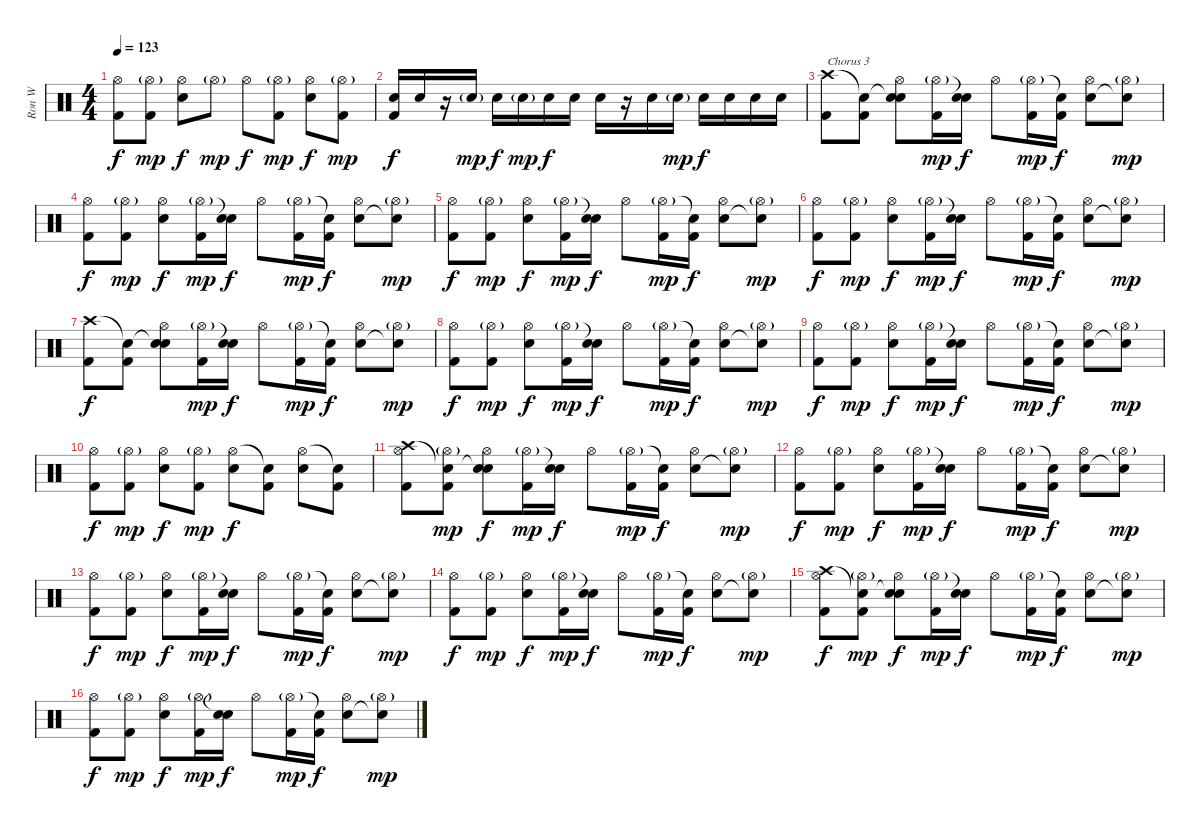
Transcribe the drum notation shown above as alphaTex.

\track ("Ron W" "Ron W") {instrument percussion}
\staff {score}
\articulation defaults
\ts (4 4)
\tempo 123
\clef neutral
\ks c
("Hi-Hat (open)" "Kick (hit) 2").8{dy f} ("Hi-Hat (open)"{g} "Kick (hit) 2").8{dy mp} ("Hi-Hat (open)" "Electric Snare (hit)").8{dy f} "Hi-Hat (open)"{g}.8{dy mp} "Hi-Hat (open)".8{dy f} ("Hi-Hat (open)"{g} "Kick (hit) 2").8{dy mp} ("Hi-Hat (open)" "Electric Snare (hit)").8{dy f} ("Hi-Hat (open)"{g} "Kick (hit) 2").8{dy mp} |
("Electric Snare (hit)" "Kick (hit) 2").16{dy f} "Electric Snare (hit)".16 r.16 "Electric Snare (hit)"{g}.16{dy mp} "Electric Snare (hit)".16{dy f} "Electric Snare (hit)"{g}.16{dy mp} "Electric Snare (hit)".16{dy f} "Electric Snare (hit)".16 "Electric Snare (hit)".16 r.16 "Electric Snare (hit)".16 "Electric Snare (hit)"{g}.16{dy mp} "Electric Snare (hit)".16{dy f} "Electric Snare (hit)".16 "Electric Snare (hit)".16 "Electric Snare (hit)".16 |
("Crash high (hit)" "Kick (hit) 2").8{txt "Chorus 3" balance 8} ("Snare (hit)"{t} "Kick (hit) 2").8 ("Snare (hit)"{t} "Hi-Hat (open)" "Electric Snare (hit)").8 ("Hi-Hat (open)"{g} "Kick (hit) 2").16{dy mp} ("Snare (hit)"{t} "Electric Snare (hit)").16{dy f} "Hi-Hat (open)".8 ("Hi-Hat (open)"{g} "Kick (hit) 2").16{dy mp} ("Snare (hit)"{t} "Kick (hit) 2").16{dy f} ("Hi-Hat (open)" "Electric Snare (hit)").8 ("Hi-Hat (open)"{g} "Snare (hit)"{t}).8{dy mp} |
("Hi-Hat (open)" "Kick (hit) 2").8{dy f} ("Hi-Hat (open)"{g} "Kick (hit) 2").8{dy mp} ("Hi-Hat (open)" "Electric Snare (hit)").8{dy f} ("Hi-Hat (open)"{g} "Kick (hit) 2").16{dy mp} ("Snare (hit)"{t} "Electric Snare (hit)").16{dy f} "Hi-Hat (open)".8 ("Hi-Hat (open)"{g} "Kick (hit) 2").16{dy mp} ("Snare (hit)"{t} "Kick (hit) 2").16{dy f} ("Hi-Hat (open)" "Electric Snare (hit)").8 ("Hi-Hat (open)"{g} "Snare (hit)"{t}).8{dy mp} |
("Hi-Hat (open)" "Kick (hit) 2").8{dy f} ("Hi-Hat (open)"{g} "Kick (hit) 2").8{dy mp} ("Hi-Hat (open)" "Electric Snare (hit)").8{dy f} ("Hi-Hat (open)"{g} "Kick (hit) 2").16{dy mp} ("Snare (hit)"{t} "Electric Snare (hit)").16{dy f} "Hi-Hat (open)".8 ("Hi-Hat (open)"{g} "Kick (hit) 2").16{dy mp} ("Snare (hit)"{t} "Kick (hit) 2").16{dy f} ("Hi-Hat (open)" "Electric Snare (hit)").8 ("Hi-Hat (open)"{g} "Snare (hit)"{t}).8{dy mp} |
("Hi-Hat (open)" "Kick (hit) 2").8{dy f} ("Hi-Hat (open)"{g} "Kick (hit) 2").8{dy mp} ("Hi-Hat (open)" "Electric Snare (hit)").8{dy f} ("Hi-Hat (open)"{g} "Kick (hit) 2").16{dy mp} ("Snare (hit)"{t} "Electric Snare (hit)").16{dy f} "Hi-Hat (open)".8 ("Hi-Hat (open)"{g} "Kick (hit) 2").16{dy mp} ("Snare (hit)"{t} "Kick (hit) 2").16{dy f} ("Hi-Hat (open)" "Electric Snare (hit)").8 ("Hi-Hat (open)"{g} "Snare (hit)"{t}).8{dy mp} |
("Crash high (hit)" "Kick (hit) 2").8{dy f} ("Snare (hit)"{t} "Kick (hit) 2").8 ("Snare (hit)"{t} "Hi-Hat (open)" "Electric Snare (hit)").8 ("Hi-Hat (open)"{g} "Kick (hit) 2").16{dy mp} ("Snare (hit)"{t} "Electric Snare (hit)").16{dy f} "Hi-Hat (open)".8 ("Hi-Hat (open)"{g} "Kick (hit) 2").16{dy mp} ("Snare (hit)"{t} "Kick (hit) 2").16{dy f} ("Hi-Hat (open)" "Electric Snare (hit)").8 ("Hi-Hat (open)"{g} "Snare (hit)"{t}).8{dy mp} |
("Hi-Hat (open)" "Kick (hit) 2").8{dy f} ("Hi-Hat (open)"{g} "Kick (hit) 2").8{dy mp} ("Hi-Hat (open)" "Electric Snare (hit)").8{dy f} ("Hi-Hat (open)"{g} "Kick (hit) 2").16{dy mp} ("Snare (hit)"{t} "Electric Snare (hit)").16{dy f} "Hi-Hat (open)".8 ("Hi-Hat (open)"{g} "Kick (hit) 2").16{dy mp} ("Snare (hit)"{t} "Kick (hit) 2").16{dy f} ("Hi-Hat (open)" "Electric Snare (hit)").8 ("Hi-Hat (open)"{g} "Snare (hit)"{t}).8{dy mp} |
("Hi-Hat (open)" "Kick (hit) 2").8{dy f} ("Hi-Hat (open)"{g} "Kick (hit) 2").8{dy mp} ("Hi-Hat (open)" "Electric Snare (hit)").8{dy f} ("Hi-Hat (open)"{g} "Kick (hit) 2").16{dy mp} ("Snare (hit)"{t} "Electric Snare (hit)").16{dy f} "Hi-Hat (open)".8 ("Hi-Hat (open)"{g} "Kick (hit) 2").16{dy mp} ("Snare (hit)"{t} "Kick (hit) 2").16{dy f} ("Hi-Hat (open)" "Electric Snare (hit)").8 ("Hi-Hat (open)"{g} "Snare (hit)"{t}).8{dy mp} |
("Hi-Hat (open)" "Kick (hit) 2").8{dy f} ("Hi-Hat (open)"{g} "Kick (hit) 2").8{dy mp} ("Hi-Hat (open)" "Electric Snare (hit)").8{dy f} ("Hi-Hat (open)"{g} "Kick (hit) 2").8{dy mp} ("Hi-Hat (open)" "Electric Snare (hit)").8{dy f} ("Snare (hit)"{t} "Kick (hit) 2").8 ("Hi-Hat (open)" "Electric Snare (hit)").8 ("Snare (hit)"{t} "Kick (hit) 2").8 |
("Crash high (hit)" "Hi-Hat (open)" "Kick (hit) 2").8{balance 8} ("Snare (hit)"{t} "Hi-Hat (open)"{g} "Kick (hit) 2").8{dy mp} ("Snare (hit)"{t} "Hi-Hat (open)" "Electric Snare (hit)").8{dy f} ("Hi-Hat (open)"{g} "Kick (hit) 2").16{dy mp} ("Snare (hit)"{t} "Electric Snare (hit)").16{dy f} "Hi-Hat (open)".8 ("Hi-Hat (open)"{g} "Kick (hit) 2").16{dy mp} ("Snare (hit)"{t} "Kick (hit) 2").16{dy f} ("Hi-Hat (open)" "Electric Snare (hit)").8 ("Hi-Hat (open)"{g} "Snare (hit)"{t}).8{dy mp} |
("Hi-Hat (open)" "Kick (hit) 2").8{dy f} ("Hi-Hat (open)"{g} "Kick (hit) 2").8{dy mp} ("Hi-Hat (open)" "Electric Snare (hit)").8{dy f} ("Hi-Hat (open)"{g} "Kick (hit) 2").16{dy mp} ("Snare (hit)"{t} "Electric Snare (hit)").16{dy f} "Hi-Hat (open)".8 ("Hi-Hat (open)"{g} "Kick (hit) 2").16{dy mp} ("Snare (hit)"{t} "Kick (hit) 2").16{dy f} ("Hi-Hat (open)" "Electric Snare (hit)").8 ("Hi-Hat (open)"{g} "Snare (hit)"{t}).8{dy mp} |
("Hi-Hat (open)" "Kick (hit) 2").8{dy f} ("Hi-Hat (open)"{g} "Kick (hit) 2").8{dy mp} ("Hi-Hat (open)" "Electric Snare (hit)").8{dy f} ("Hi-Hat (open)"{g} "Kick (hit) 2").16{dy mp} ("Snare (hit)"{t} "Electric Snare (hit)").16{dy f} "Hi-Hat (open)".8 ("Hi-Hat (open)"{g} "Kick (hit) 2").16{dy mp} ("Snare (hit)"{t} "Kick (hit) 2").16{dy f} ("Hi-Hat (open)" "Electric Snare (hit)").8 ("Hi-Hat (open)"{g} "Snare (hit)"{t}).8{dy mp} |
("Hi-Hat (open)" "Kick (hit) 2").8{dy f} ("Hi-Hat (open)"{g} "Kick (hit) 2").8{dy mp} ("Hi-Hat (open)" "Electric Snare (hit)").8{dy f} ("Hi-Hat (open)"{g} "Kick (hit) 2").16{dy mp} ("Snare (hit)"{t} "Electric Snare (hit)").16{dy f} "Hi-Hat (open)".8 ("Hi-Hat (open)"{g} "Kick (hit) 2").16{dy mp} ("Snare (hit)"{t} "Kick (hit) 2").16{dy f} ("Hi-Hat (open)" "Electric Snare (hit)").8 ("Hi-Hat (open)"{g} "Snare (hit)"{t}).8{dy mp} |
("Crash high (hit)" "Hi-Hat (open)" "Kick (hit) 2").8{dy f balance 8} ("Snare (hit)"{t} "Hi-Hat (open)"{g} "Kick (hit) 2").8{dy mp} ("Snare (hit)"{t} "Hi-Hat (open)" "Electric Snare (hit)").8{dy f} ("Hi-Hat (open)"{g} "Kick (hit) 2").16{dy mp} ("Snare (hit)"{t} "Electric Snare (hit)").16{dy f} "Hi-Hat (open)".8 ("Hi-Hat (open)"{g} "Kick (hit) 2").16{dy mp} ("Snare (hit)"{t} "Kick (hit) 2").16{dy f} ("Hi-Hat (open)" "Electric Snare (hit)").8 ("Hi-Hat (open)"{g} "Snare (hit)"{t}).8{dy mp} |
("Hi-Hat (open)" "Kick (hit) 2").8{dy f} ("Hi-Hat (open)"{g} "Kick (hit) 2").8{dy mp} ("Hi-Hat (open)" "Electric Snare (hit)").8{dy f} ("Hi-Hat (open)"{g} "Kick (hit) 2").16{dy mp} ("Snare (hit)"{t} "Electric Snare (hit)").16{dy f} "Hi-Hat (open)".8 ("Hi-Hat (open)"{g} "Kick (hit) 2").16{dy mp} ("Snare (hit)"{t} "Kick (hit) 2").16{dy f} ("Hi-Hat (open)" "Electric Snare (hit)").8 ("Hi-Hat (open)"{g} "Snare (hit)"{t}).8{dy mp}
